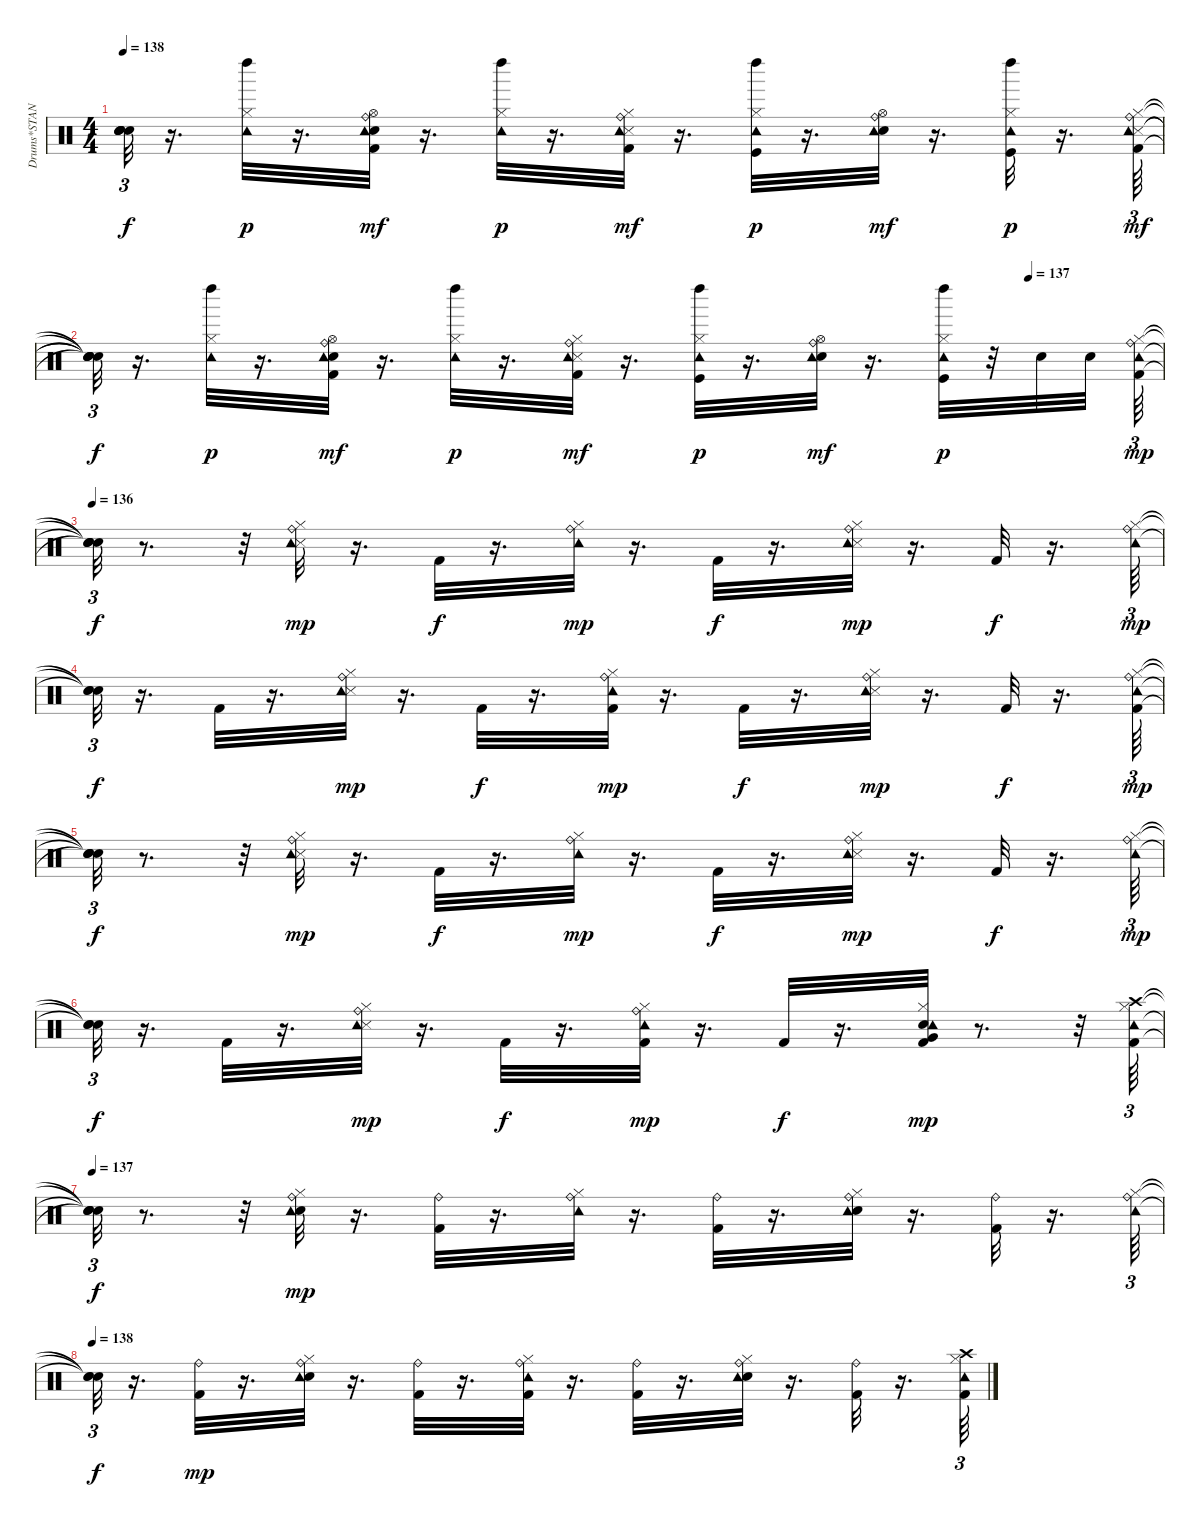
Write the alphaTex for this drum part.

\track ("Drums*STANDARD      " "Drums*STAN") {instrument percussion}
\staff {score}
\articulation defaults
\ts (4 4)
\tempo 138
\clef neutral
\ks c
("Snare (hit)"{t} "Snare (hit)"{t} "Snare (hit)"{t} "Snare (hit)"{t} "Snare (hit)"{t}).32{tu (3 2) dy f} r.16{d} ("Hi-Hat (closed)" "Left Maraca (hit)" "Tambourine (hit)").32{dy p} r.16{d} ("Kick (hit) 2" "Snare (hit) 2" "Hi-Hat (open)" "Ride (bell)" "Tambourine (hit)").32{dy mf} r.16{d} ("Hi-Hat (closed)" "Left Maraca (hit)" "Tambourine (hit)").32{dy p} r.16{d} ("Kick (hit) 2" "Hi-Hat (closed)" "Snare (side stick) 3" "Ride (bell)" "Tambourine (hit)").32{dy mf} r.16{d} ("Hi-Hat (closed)" "Left Maraca (hit)" "Kick (hit)" "Tambourine (hit)").32{dy p} r.16{d} ("Snare (hit) 2" "Hi-Hat (open)" "Ride (bell)" "Tambourine (hit)").32{dy mf} r.16{d} ("Hi-Hat (closed)" "Left Maraca (hit)" "Kick (hit)" "Tambourine (hit)").32{dy p} r.16{d} ("Kick (hit) 2" "Hi-Hat (closed)" "Snare (side stick) 3" "Ride (bell)" "Tambourine (hit)").64{tu (3 2) dy mf} |
\tempo (137 0.875)
("Snare (hit)"{t} "Snare (hit)"{t} "Snare (hit)"{t} "Snare (hit)"{t} "Snare (hit)"{t}).32{tu (3 2) dy f} r.16{d} ("Hi-Hat (closed)" "Left Maraca (hit)" "Tambourine (hit)").32{dy p} r.16{d} ("Kick (hit) 2" "Snare (hit) 2" "Hi-Hat (open)" "Ride (bell)" "Tambourine (hit)").32{dy mf} r.16{d} ("Hi-Hat (closed)" "Left Maraca (hit)" "Tambourine (hit)").32{dy p} r.16{d} ("Kick (hit) 2" "Hi-Hat (closed)" "Snare (side stick) 3" "Ride (bell)" "Tambourine (hit)").32{dy mf} r.16{d} ("Hi-Hat (closed)" "Left Maraca (hit)" "Kick (hit)" "Tambourine (hit)").32{dy p} r.16{d} ("Snare (hit) 2" "Hi-Hat (open)" "Ride (bell)" "Tambourine (hit)").32{dy mf} r.16{d} ("Hi-Hat (closed)" "Left Maraca (hit)" "Kick (hit)" "Tambourine (hit)").32{dy p} r.32 "Electric Snare (hit)".32 "Electric Snare (hit)".32 ("Kick (hit) 2" "Hi-Hat (closed)" "Ride (bell)" "Tambourine (hit)").64{tu (3 2) dy mp} |
\tempo 136
("Snare (hit)"{t} "Snare (hit)"{t} "Snare (hit)"{t} "Snare (hit)"{t}).32{tu (3 2) dy f} r.8{d} r.32 ("Hi-Hat (closed)" "Snare (side stick) 3" "Ride (bell)" "Tambourine (hit)").32{dy mp} r.16{d} "Kick (hit) 2".32{dy f} r.16{d} ("Hi-Hat (closed)" "Ride (bell)" "Tambourine (hit)").32{dy mp} r.16{d} "Kick (hit) 2".32{dy f} r.16{d} ("Hi-Hat (closed)" "Snare (side stick) 3" "Ride (bell)" "Tambourine (hit)").32{dy mp} r.16{d} "Kick (hit) 2".32{dy f} r.16{d} ("Hi-Hat (closed)" "Ride (bell)" "Tambourine (hit)").64{tu (3 2) dy mp} |
("Snare (hit)"{t} "Snare (hit)"{t} "Snare (hit)"{t}).32{tu (3 2) dy f} r.16{d} "Kick (hit) 2".32 r.16{d} ("Hi-Hat (closed)" "Snare (side stick) 3" "Ride (bell)" "Tambourine (hit)").32{dy mp} r.16{d} "Kick (hit) 2".32{dy f} r.16{d} ("Kick (hit) 2" "Hi-Hat (closed)" "Ride (bell)" "Tambourine (hit)").32{dy mp} r.16{d} "Kick (hit) 2".32{dy f} r.16{d} ("Hi-Hat (closed)" "Snare (side stick) 3" "Ride (bell)" "Tambourine (hit)").32{dy mp} r.16{d} "Kick (hit) 2".32{dy f} r.16{d} ("Kick (hit) 2" "Hi-Hat (closed)" "Ride (bell)" "Tambourine (hit)").64{tu (3 2) dy mp} |
("Snare (hit)"{t} "Snare (hit)"{t} "Snare (hit)"{t} "Snare (hit)"{t}).32{tu (3 2) dy f} r.8{d} r.32 ("Hi-Hat (closed)" "Snare (side stick) 3" "Ride (bell)" "Tambourine (hit)").32{dy mp} r.16{d} "Kick (hit) 2".32{dy f} r.16{d} ("Hi-Hat (closed)" "Ride (bell)" "Tambourine (hit)").32{dy mp} r.16{d} "Kick (hit) 2".32{dy f} r.16{d} ("Hi-Hat (closed)" "Snare (side stick) 3" "Ride (bell)" "Tambourine (hit)").32{dy mp} r.16{d} "Kick (hit) 2".32{dy f} r.16{d} ("Hi-Hat (closed)" "Ride (bell)" "Tambourine (hit)").64{tu (3 2) dy mp} |
("Snare (hit)"{t} "Snare (hit)"{t} "Snare (hit)"{t}).32{tu (3 2) dy f} r.16{d} "Kick (hit) 2".32 r.16{d} ("Hi-Hat (closed)" "Snare (side stick) 3" "Ride (bell)" "Tambourine (hit)").32{dy mp} r.16{d} "Kick (hit) 2".32{dy f} r.16{d} ("Kick (hit) 2" "Hi-Hat (closed)" "Ride (bell)" "Tambourine (hit)").32{dy mp} r.16{d} "Kick (hit) 2".32{dy f} r.16{d} ("Kick (hit) 2" "Snare (hit) 2" "Hi-Hat (closed)" "Very Low Tom (hit)" "Tambourine (hit)").32{dy mp} r.8{d} r.32 ("Kick (hit) 2" "Hi-Hat (closed)" "Crash high (hit)" "Tambourine (hit)").64{tu (3 2)} |
\tempo 137
("Snare (hit)"{t} "Snare (hit)"{t} "Snare (hit)"{t} "Snare (hit)"{t}).32{tu (3 2) dy f} r.8{d} r.32 ("Snare (hit) 2" "Hi-Hat (closed)" "Ride (bell)" "Tambourine (hit)").32{dy mp} r.16{d} ("Kick (hit) 2" "Ride (bell)").32 r.16{d} ("Hi-Hat (closed)" "Ride (bell)" "Tambourine (hit)").32 r.16{d} ("Kick (hit) 2" "Ride (bell)").32 r.16{d} ("Snare (hit) 2" "Hi-Hat (closed)" "Ride (bell)" "Tambourine (hit)").32 r.16{d} ("Kick (hit) 2" "Ride (bell)").32 r.16{d} ("Hi-Hat (closed)" "Ride (bell)" "Tambourine (hit)").64{tu (3 2)} |
\tempo 138
("Snare (hit)"{t} "Snare (hit)"{t} "Snare (hit)"{t}).32{tu (3 2) dy f} r.16{d} ("Kick (hit) 2" "Ride (bell)").32{dy mp} r.16{d} ("Snare (hit) 2" "Hi-Hat (closed)" "Ride (bell)" "Tambourine (hit)").32 r.16{d} ("Kick (hit) 2" "Ride (bell)").32 r.16{d} ("Kick (hit) 2" "Hi-Hat (closed)" "Ride (bell)" "Tambourine (hit)").32 r.16{d} ("Kick (hit) 2" "Ride (bell)").32 r.16{d} ("Snare (hit) 2" "Hi-Hat (closed)" "Ride (bell)" "Tambourine (hit)").32 r.16{d} ("Kick (hit) 2" "Ride (bell)").32 r.16{d} ("Kick (hit) 2" "Hi-Hat (closed)" "Crash high (hit)" "Tambourine (hit)").64{tu (3 2)}
